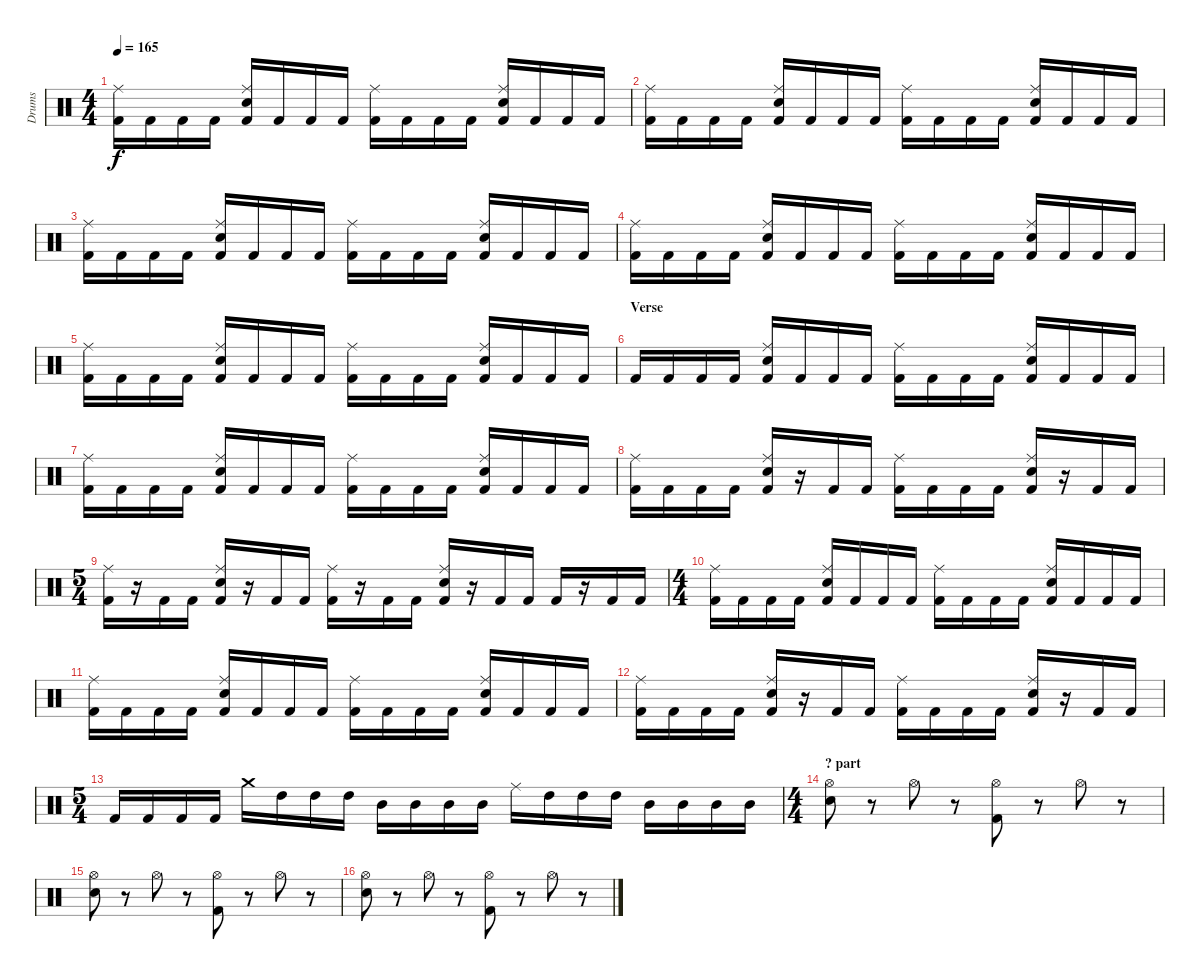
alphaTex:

\track ("Drums" "Drums") {instrument percussion}
\staff {score}
\articulation defaults
\ts (4 4)
\tempo 165
\clef neutral
\ks c
("Kick (hit) 2" "Ride (middle)").16{dy f} "Kick (hit) 2".16 "Kick (hit) 2".16 "Kick (hit) 2".16 ("Kick (hit) 2" "Electric Snare (hit)" "Ride (middle)").16 "Kick (hit) 2".16 "Kick (hit) 2".16 "Kick (hit) 2".16 ("Kick (hit) 2" "Ride (middle)").16 "Kick (hit) 2".16 "Kick (hit) 2".16 "Kick (hit) 2".16 ("Kick (hit) 2" "Electric Snare (hit)" "Ride (middle)").16 "Kick (hit) 2".16 "Kick (hit) 2".16 "Kick (hit) 2".16 |
("Kick (hit) 2" "Ride (middle)").16 "Kick (hit) 2".16 "Kick (hit) 2".16 "Kick (hit) 2".16 ("Kick (hit) 2" "Electric Snare (hit)" "Ride (middle)").16 "Kick (hit) 2".16 "Kick (hit) 2".16 "Kick (hit) 2".16 ("Kick (hit) 2" "Ride (middle)").16 "Kick (hit) 2".16 "Kick (hit) 2".16 "Kick (hit) 2".16 ("Kick (hit) 2" "Electric Snare (hit)" "Ride (middle)").16 "Kick (hit) 2".16 "Kick (hit) 2".16 "Kick (hit) 2".16 |
("Kick (hit) 2" "Ride (middle)").16 "Kick (hit) 2".16 "Kick (hit) 2".16 "Kick (hit) 2".16 ("Kick (hit) 2" "Electric Snare (hit)" "Ride (middle)").16 "Kick (hit) 2".16 "Kick (hit) 2".16 "Kick (hit) 2".16 ("Kick (hit) 2" "Ride (middle)").16 "Kick (hit) 2".16 "Kick (hit) 2".16 "Kick (hit) 2".16 ("Kick (hit) 2" "Electric Snare (hit)" "Ride (middle)").16 "Kick (hit) 2".16 "Kick (hit) 2".16 "Kick (hit) 2".16 |
("Kick (hit) 2" "Ride (middle)").16 "Kick (hit) 2".16 "Kick (hit) 2".16 "Kick (hit) 2".16 ("Kick (hit) 2" "Electric Snare (hit)" "Ride (middle)").16 "Kick (hit) 2".16 "Kick (hit) 2".16 "Kick (hit) 2".16 ("Kick (hit) 2" "Ride (middle)").16 "Kick (hit) 2".16 "Kick (hit) 2".16 "Kick (hit) 2".16 ("Kick (hit) 2" "Electric Snare (hit)" "Ride (middle)").16 "Kick (hit) 2".16 "Kick (hit) 2".16 "Kick (hit) 2".16 |
("Kick (hit) 2" "Ride (middle)").16 "Kick (hit) 2".16 "Kick (hit) 2".16 "Kick (hit) 2".16 ("Kick (hit) 2" "Electric Snare (hit)" "Ride (middle)").16 "Kick (hit) 2".16 "Kick (hit) 2".16 "Kick (hit) 2".16 ("Kick (hit) 2" "Ride (middle)").16 "Kick (hit) 2".16 "Kick (hit) 2".16 "Kick (hit) 2".16 ("Kick (hit) 2" "Electric Snare (hit)" "Ride (middle)").16 "Kick (hit) 2".16 "Kick (hit) 2".16 "Kick (hit) 2".16 |
\section ("" "Verse")
"Kick (hit) 2".16 "Kick (hit) 2".16 "Kick (hit) 2".16 "Kick (hit) 2".16 ("Kick (hit) 2" "Electric Snare (hit)" "Ride (middle)").16 "Kick (hit) 2".16 "Kick (hit) 2".16 "Kick (hit) 2".16 ("Kick (hit) 2" "Ride (middle)").16 "Kick (hit) 2".16 "Kick (hit) 2".16 "Kick (hit) 2".16 ("Kick (hit) 2" "Electric Snare (hit)" "Ride (middle)").16 "Kick (hit) 2".16 "Kick (hit) 2".16 "Kick (hit) 2".16 |
("Kick (hit) 2" "Ride (middle)").16 "Kick (hit) 2".16 "Kick (hit) 2".16 "Kick (hit) 2".16 ("Kick (hit) 2" "Electric Snare (hit)" "Ride (middle)").16 "Kick (hit) 2".16 "Kick (hit) 2".16 "Kick (hit) 2".16 ("Kick (hit) 2" "Ride (middle)").16 "Kick (hit) 2".16 "Kick (hit) 2".16 "Kick (hit) 2".16 ("Kick (hit) 2" "Electric Snare (hit)" "Ride (middle)").16 "Kick (hit) 2".16 "Kick (hit) 2".16 "Kick (hit) 2".16 |
("Kick (hit) 2" "Ride (middle)").16 "Kick (hit) 2".16 "Kick (hit) 2".16 "Kick (hit) 2".16 ("Kick (hit) 2" "Electric Snare (hit)" "Ride (middle)").16 r.16 "Kick (hit) 2".16 "Kick (hit) 2".16 ("Kick (hit) 2" "Ride (middle)").16 "Kick (hit) 2".16 "Kick (hit) 2".16 "Kick (hit) 2".16 ("Kick (hit) 2" "Electric Snare (hit)" "Ride (middle)").16 r.16 "Kick (hit) 2".16 "Kick (hit) 2".16 |
\ts (5 4)
("Kick (hit) 2" "Ride (middle)").16 r.16 "Kick (hit) 2".16 "Kick (hit) 2".16 ("Kick (hit) 2" "Electric Snare (hit)" "Ride (middle)").16 r.16 "Kick (hit) 2".16 "Kick (hit) 2".16 ("Kick (hit) 2" "Ride (middle)").16 r.16 "Kick (hit) 2".16 "Kick (hit) 2".16 ("Kick (hit) 2" "Electric Snare (hit)" "Ride (middle)").16 r.16 "Kick (hit) 2".16 "Kick (hit) 2".16 "Kick (hit) 2".16 r.16 "Kick (hit) 2".16 "Kick (hit) 2".16 |
\ts (4 4)
("Kick (hit) 2" "Ride (middle)").16 "Kick (hit) 2".16 "Kick (hit) 2".16 "Kick (hit) 2".16 ("Kick (hit) 2" "Electric Snare (hit)" "Ride (middle)").16 "Kick (hit) 2".16 "Kick (hit) 2".16 "Kick (hit) 2".16 ("Kick (hit) 2" "Ride (middle)").16 "Kick (hit) 2".16 "Kick (hit) 2".16 "Kick (hit) 2".16 ("Kick (hit) 2" "Electric Snare (hit)" "Ride (middle)").16 "Kick (hit) 2".16 "Kick (hit) 2".16 "Kick (hit) 2".16 |
("Kick (hit) 2" "Ride (middle)").16 "Kick (hit) 2".16 "Kick (hit) 2".16 "Kick (hit) 2".16 ("Kick (hit) 2" "Electric Snare (hit)" "Ride (middle)").16 "Kick (hit) 2".16 "Kick (hit) 2".16 "Kick (hit) 2".16 ("Kick (hit) 2" "Ride (middle)").16 "Kick (hit) 2".16 "Kick (hit) 2".16 "Kick (hit) 2".16 ("Kick (hit) 2" "Electric Snare (hit)" "Ride (middle)").16 "Kick (hit) 2".16 "Kick (hit) 2".16 "Kick (hit) 2".16 |
("Kick (hit) 2" "Ride (middle)").16 "Kick (hit) 2".16 "Kick (hit) 2".16 "Kick (hit) 2".16 ("Kick (hit) 2" "Electric Snare (hit)" "Ride (middle)").16 r.16 "Kick (hit) 2".16 "Kick (hit) 2".16 ("Kick (hit) 2" "Ride (middle)").16 "Kick (hit) 2".16 "Kick (hit) 2".16 "Kick (hit) 2".16 ("Kick (hit) 2" "Electric Snare (hit)" "Ride (middle)").16 r.16 "Kick (hit) 2".16 "Kick (hit) 2".16 |
\ts (5 4)
"Kick (hit) 2".16 "Kick (hit) 2".16 "Kick (hit) 2".16 "Kick (hit) 2".16 "Crash medium (hit)".16 "High Tom (hit)".16 "High Tom (hit)".16 "High Tom (hit)".16 "Mid Tom (hit)".16 "Mid Tom (hit)".16 "Mid Tom (hit)".16 "Mid Tom (hit)".16 "Ride (middle)".16 "High Tom (hit)".16 "High Tom (hit)".16 "High Tom (hit)".16 "Mid Tom (hit)".16 "Mid Tom (hit)".16 "Mid Tom (hit)".16 "Mid Tom (hit)".16 |
\ts (4 4)
\section ("" "? part")
("Electric Snare (hit)" "Hi-Hat (open)").8 r.8 "Hi-Hat (open)".8 r.8 ("Kick (hit) 2" "Hi-Hat (open)").8 r.8 "Hi-Hat (open)".8 r.8 |
("Electric Snare (hit)" "Hi-Hat (open)").8 r.8 "Hi-Hat (open)".8 r.8 ("Kick (hit) 2" "Hi-Hat (open)").8 r.8 "Hi-Hat (open)".8 r.8 |
("Electric Snare (hit)" "Hi-Hat (open)").8 r.8 "Hi-Hat (open)".8 r.8 ("Kick (hit) 2" "Hi-Hat (open)").8 r.8 "Hi-Hat (open)".8 r.8
